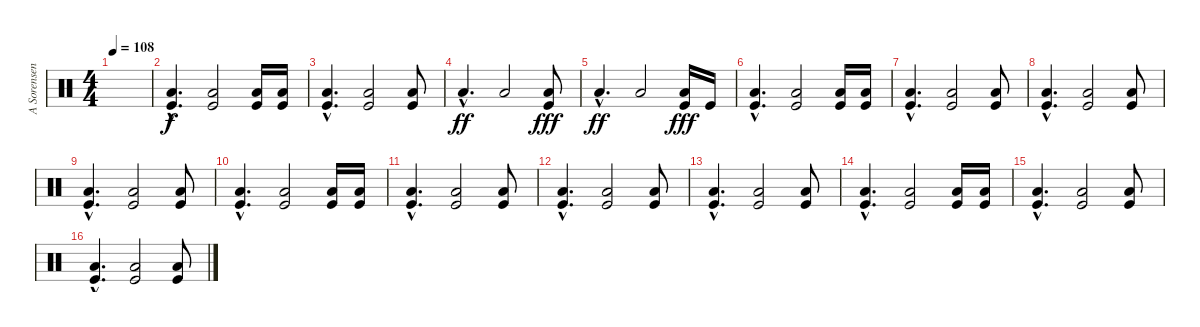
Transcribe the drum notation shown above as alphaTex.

\track ("A Sorensen" "A Sorensen") {instrument percussion}
\staff {score}
\articulation defaults
\ts (4 4)
\tempo 108
\clef neutral
\ks c
|
("Low Floor Tom (hit)"{hac} "Kick (hit)"{hac}).4{d} ("Low Floor Tom (hit)" "Kick (hit)").2 ("Low Floor Tom (hit)" "Kick (hit)").16 ("Low Floor Tom (hit)" "Kick (hit)").16 |
("Low Floor Tom (hit)"{hac} "Kick (hit)"{hac}).4{d} ("Low Floor Tom (hit)" "Kick (hit)").2 ("Low Floor Tom (hit)" "Kick (hit)").8 |
"Low Floor Tom (hit)"{hac}.4{d dy ff} "Low Floor Tom (hit)".2 ("Low Floor Tom (hit)" "Kick (hit)").8{dy fff} |
"Low Floor Tom (hit)"{hac}.4{d dy ff} "Low Floor Tom (hit)".2 ("Low Floor Tom (hit)" "Kick (hit)").16{dy fff} "Kick (hit)".16 |
("Low Floor Tom (hit)"{hac} "Kick (hit)"{hac}).4{d} ("Low Floor Tom (hit)" "Kick (hit)").2 ("Low Floor Tom (hit)" "Kick (hit)").16 ("Low Floor Tom (hit)" "Kick (hit)").16 |
("Low Floor Tom (hit)"{hac} "Kick (hit)"{hac}).4{d} ("Low Floor Tom (hit)" "Kick (hit)").2 ("Low Floor Tom (hit)" "Kick (hit)").8 |
("Low Floor Tom (hit)"{hac} "Kick (hit)"{hac}).4{d} ("Low Floor Tom (hit)" "Kick (hit)").2 ("Low Floor Tom (hit)" "Kick (hit)").8 |
("Low Floor Tom (hit)"{hac} "Kick (hit)"{hac}).4{d} ("Low Floor Tom (hit)" "Kick (hit)").2 ("Low Floor Tom (hit)" "Kick (hit)").8 |
("Low Floor Tom (hit)"{hac} "Kick (hit)"{hac}).4{d} ("Low Floor Tom (hit)" "Kick (hit)").2 ("Low Floor Tom (hit)" "Kick (hit)").16 ("Low Floor Tom (hit)" "Kick (hit)").16 |
("Low Floor Tom (hit)"{hac} "Kick (hit)"{hac}).4{d} ("Low Floor Tom (hit)" "Kick (hit)").2 ("Low Floor Tom (hit)" "Kick (hit)").8 |
("Low Floor Tom (hit)"{hac} "Kick (hit)"{hac}).4{d} ("Low Floor Tom (hit)" "Kick (hit)").2 ("Low Floor Tom (hit)" "Kick (hit)").8 |
("Low Floor Tom (hit)"{hac} "Kick (hit)"{hac}).4{d} ("Low Floor Tom (hit)" "Kick (hit)").2 ("Low Floor Tom (hit)" "Kick (hit)").8 |
("Low Floor Tom (hit)"{hac} "Kick (hit)"{hac}).4{d} ("Low Floor Tom (hit)" "Kick (hit)").2 ("Low Floor Tom (hit)" "Kick (hit)").16 ("Low Floor Tom (hit)" "Kick (hit)").16 |
("Low Floor Tom (hit)"{hac} "Kick (hit)"{hac}).4{d} ("Low Floor Tom (hit)" "Kick (hit)").2 ("Low Floor Tom (hit)" "Kick (hit)").8 |
("Low Floor Tom (hit)"{hac} "Kick (hit)"{hac}).4{d} ("Low Floor Tom (hit)" "Kick (hit)").2 ("Low Floor Tom (hit)" "Kick (hit)").8
